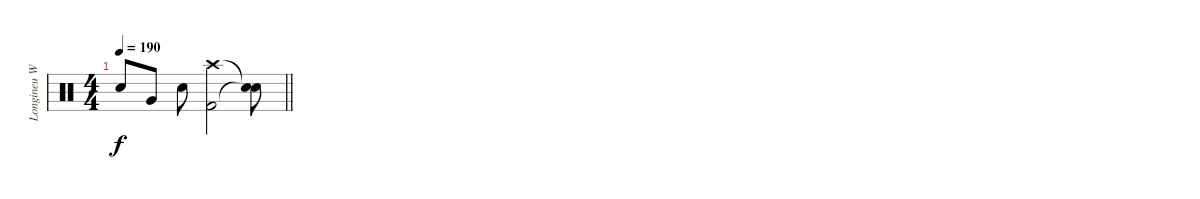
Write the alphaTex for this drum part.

\track ("Longineu W. Parsons III" "Longineu W") {instrument percussion}
\staff {score}
\articulation defaults
\ts (4 4)
\tempo 190
\clef neutral
\barLineRight lightlight
\ks c "Electric Snare (hit)".8{dy f} "Very Low Tom (hit)".8 "Electric Snare (hit)".8
("Crash high (hit)" "Kick (hit) 2").2 ("Snare (hit)"{t} "Snare (hit)"{t}).8
